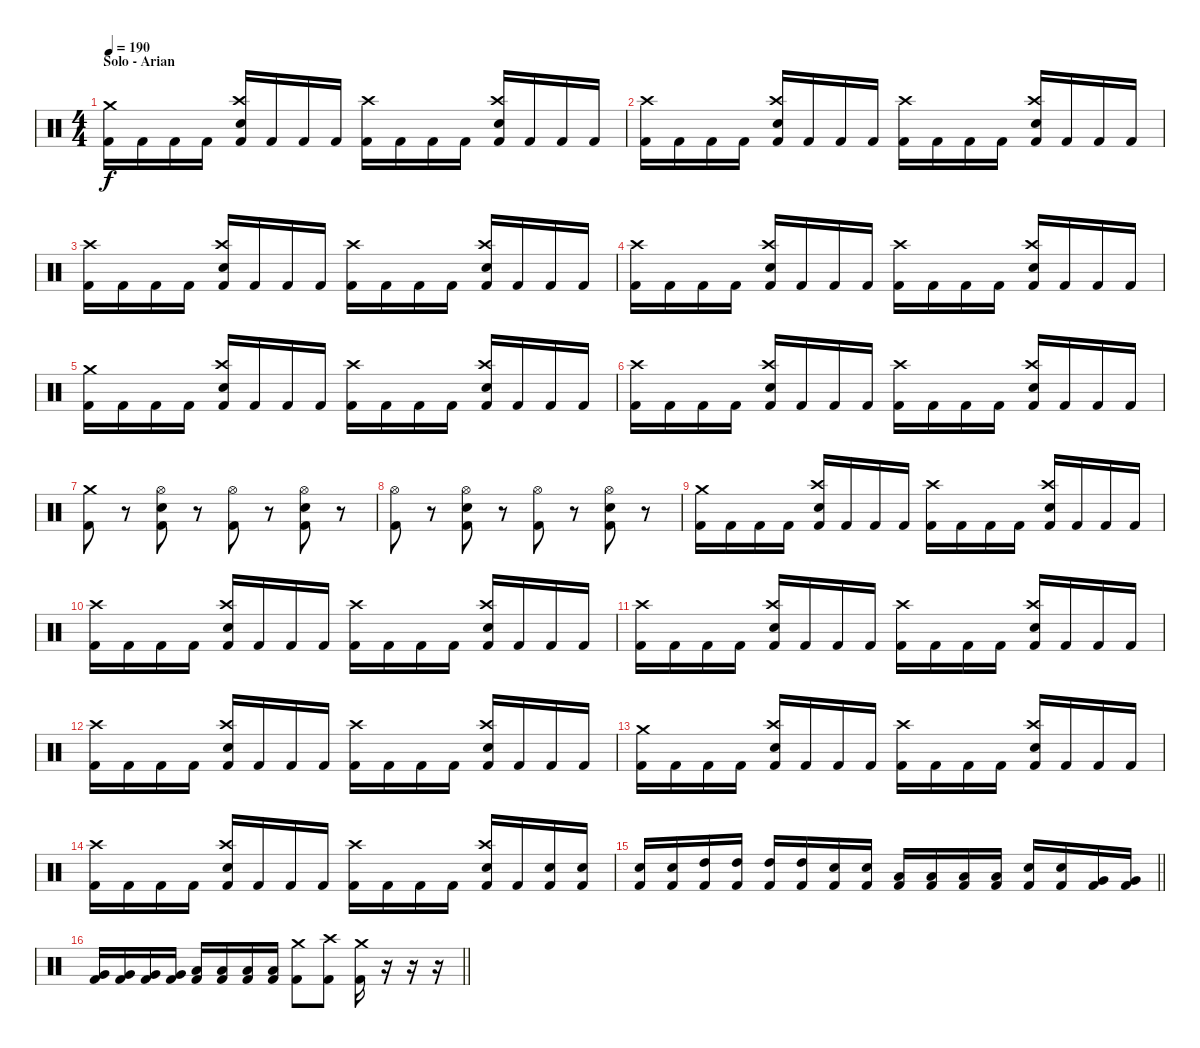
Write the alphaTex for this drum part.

\track "" {instrument percussion}
\staff {score}
\articulation defaults
\ts (4 4)
\section ("" "Solo - Arian")
\tempo 190
\clef neutral
\ks c
("Crash medium (hit)" "Kick (hit) 2").16{dy f} "Kick (hit) 2".16 "Kick (hit) 2".16 "Kick (hit) 2".16 ("Crash high (hit)" "Electric Snare (hit)" "Kick (hit) 2").16 "Kick (hit) 2".16 "Kick (hit) 2".16 "Kick (hit) 2".16 ("Crash high (hit)" "Kick (hit) 2").16 "Kick (hit) 2".16 "Kick (hit) 2".16 "Kick (hit) 2".16 ("Crash high (hit)" "Electric Snare (hit)" "Kick (hit) 2").16 "Kick (hit) 2".16 "Kick (hit) 2".16 "Kick (hit) 2".16 |
("Crash high (hit)" "Kick (hit) 2").16 "Kick (hit) 2".16 "Kick (hit) 2".16 "Kick (hit) 2".16 ("Crash high (hit)" "Electric Snare (hit)" "Kick (hit) 2").16 "Kick (hit) 2".16 "Kick (hit) 2".16 "Kick (hit) 2".16 ("Crash high (hit)" "Kick (hit) 2").16 "Kick (hit) 2".16 "Kick (hit) 2".16 "Kick (hit) 2".16 ("Crash high (hit)" "Electric Snare (hit)" "Kick (hit) 2").16 "Kick (hit) 2".16 "Kick (hit) 2".16 "Kick (hit) 2".16 |
("Crash high (hit)" "Kick (hit) 2").16 "Kick (hit) 2".16 "Kick (hit) 2".16 "Kick (hit) 2".16 ("Crash high (hit)" "Electric Snare (hit)" "Kick (hit) 2").16 "Kick (hit) 2".16 "Kick (hit) 2".16 "Kick (hit) 2".16 ("Crash high (hit)" "Kick (hit) 2").16 "Kick (hit) 2".16 "Kick (hit) 2".16 "Kick (hit) 2".16 ("Crash high (hit)" "Electric Snare (hit)" "Kick (hit) 2").16 "Kick (hit) 2".16 "Kick (hit) 2".16 "Kick (hit) 2".16 |
("Crash high (hit)" "Kick (hit) 2").16 "Kick (hit) 2".16 "Kick (hit) 2".16 "Kick (hit) 2".16 ("Crash high (hit)" "Electric Snare (hit)" "Kick (hit) 2").16 "Kick (hit) 2".16 "Kick (hit) 2".16 "Kick (hit) 2".16 ("Crash high (hit)" "Kick (hit) 2").16 "Kick (hit) 2".16 "Kick (hit) 2".16 "Kick (hit) 2".16 ("Crash high (hit)" "Electric Snare (hit)" "Kick (hit) 2").16 "Kick (hit) 2".16 "Kick (hit) 2".16 "Kick (hit) 2".16 |
("Crash medium (hit)" "Kick (hit) 2").16 "Kick (hit) 2".16 "Kick (hit) 2".16 "Kick (hit) 2".16 ("Crash high (hit)" "Electric Snare (hit)" "Kick (hit) 2").16 "Kick (hit) 2".16 "Kick (hit) 2".16 "Kick (hit) 2".16 ("Crash high (hit)" "Kick (hit) 2").16 "Kick (hit) 2".16 "Kick (hit) 2".16 "Kick (hit) 2".16 ("Crash high (hit)" "Electric Snare (hit)" "Kick (hit) 2").16 "Kick (hit) 2".16 "Kick (hit) 2".16 "Kick (hit) 2".16 |
("Crash high (hit)" "Kick (hit) 2").16 "Kick (hit) 2".16 "Kick (hit) 2".16 "Kick (hit) 2".16 ("Crash high (hit)" "Electric Snare (hit)" "Kick (hit) 2").16 "Kick (hit) 2".16 "Kick (hit) 2".16 "Kick (hit) 2".16 ("Crash high (hit)" "Kick (hit) 2").16 "Kick (hit) 2".16 "Kick (hit) 2".16 "Kick (hit) 2".16 ("Crash high (hit)" "Electric Snare (hit)" "Kick (hit) 2").16 "Kick (hit) 2".16 "Kick (hit) 2".16 "Kick (hit) 2".16 |
("Crash medium (hit)" "Kick (hit) 2").8 r.8 ("Hi-Hat (open)" "Electric Snare (hit)" "Kick (hit) 2").8 r.8 ("Hi-Hat (open)" "Kick (hit) 2").8 r.8 ("Hi-Hat (open)" "Electric Snare (hit)" "Kick (hit) 2").8 r.8 |
("Hi-Hat (open)" "Kick (hit) 2").8 r.8 ("Hi-Hat (open)" "Electric Snare (hit)" "Kick (hit) 2").8 r.8 ("Hi-Hat (open)" "Kick (hit) 2").8 r.8 ("Hi-Hat (open)" "Electric Snare (hit)" "Kick (hit) 2").8 r.8 |
("Crash medium (hit)" "Kick (hit) 2").16 "Kick (hit) 2".16 "Kick (hit) 2".16 "Kick (hit) 2".16 ("Crash high (hit)" "Electric Snare (hit)" "Kick (hit) 2").16 "Kick (hit) 2".16 "Kick (hit) 2".16 "Kick (hit) 2".16 ("Crash high (hit)" "Kick (hit) 2").16 "Kick (hit) 2".16 "Kick (hit) 2".16 "Kick (hit) 2".16 ("Crash high (hit)" "Electric Snare (hit)" "Kick (hit) 2").16 "Kick (hit) 2".16 "Kick (hit) 2".16 "Kick (hit) 2".16 |
("Crash high (hit)" "Kick (hit) 2").16 "Kick (hit) 2".16 "Kick (hit) 2".16 "Kick (hit) 2".16 ("Crash high (hit)" "Electric Snare (hit)" "Kick (hit) 2").16 "Kick (hit) 2".16 "Kick (hit) 2".16 "Kick (hit) 2".16 ("Crash high (hit)" "Kick (hit) 2").16 "Kick (hit) 2".16 "Kick (hit) 2".16 "Kick (hit) 2".16 ("Crash high (hit)" "Electric Snare (hit)" "Kick (hit) 2").16 "Kick (hit) 2".16 "Kick (hit) 2".16 "Kick (hit) 2".16 |
("Crash high (hit)" "Kick (hit) 2").16 "Kick (hit) 2".16 "Kick (hit) 2".16 "Kick (hit) 2".16 ("Crash high (hit)" "Electric Snare (hit)" "Kick (hit) 2").16 "Kick (hit) 2".16 "Kick (hit) 2".16 "Kick (hit) 2".16 ("Crash high (hit)" "Kick (hit) 2").16 "Kick (hit) 2".16 "Kick (hit) 2".16 "Kick (hit) 2".16 ("Crash high (hit)" "Electric Snare (hit)" "Kick (hit) 2").16 "Kick (hit) 2".16 "Kick (hit) 2".16 "Kick (hit) 2".16 |
("Crash high (hit)" "Kick (hit) 2").16 "Kick (hit) 2".16 "Kick (hit) 2".16 "Kick (hit) 2".16 ("Crash high (hit)" "Electric Snare (hit)" "Kick (hit) 2").16 "Kick (hit) 2".16 "Kick (hit) 2".16 "Kick (hit) 2".16 ("Crash high (hit)" "Kick (hit) 2").16 "Kick (hit) 2".16 "Kick (hit) 2".16 "Kick (hit) 2".16 ("Crash high (hit)" "Electric Snare (hit)" "Kick (hit) 2").16 "Kick (hit) 2".16 "Kick (hit) 2".16 "Kick (hit) 2".16 |
("Crash medium (hit)" "Kick (hit) 2").16 "Kick (hit) 2".16 "Kick (hit) 2".16 "Kick (hit) 2".16 ("Crash high (hit)" "Electric Snare (hit)" "Kick (hit) 2").16 "Kick (hit) 2".16 "Kick (hit) 2".16 "Kick (hit) 2".16 ("Crash high (hit)" "Kick (hit) 2").16 "Kick (hit) 2".16 "Kick (hit) 2".16 "Kick (hit) 2".16 ("Crash high (hit)" "Electric Snare (hit)" "Kick (hit) 2").16 "Kick (hit) 2".16 "Kick (hit) 2".16 "Kick (hit) 2".16 |
("Crash high (hit)" "Kick (hit) 2").16 "Kick (hit) 2".16 "Kick (hit) 2".16 "Kick (hit) 2".16 ("Crash high (hit)" "Electric Snare (hit)" "Kick (hit) 2").16 "Kick (hit) 2".16 "Kick (hit) 2".16 "Kick (hit) 2".16 ("Crash high (hit)" "Kick (hit) 2").16 "Kick (hit) 2".16 "Kick (hit) 2".16 "Kick (hit) 2".16 ("Crash high (hit)" "Electric Snare (hit)" "Kick (hit) 2").16 "Kick (hit) 2".16 ("Electric Snare (hit)" "Kick (hit) 2").16 ("Electric Snare (hit)" "Kick (hit) 2").16 |
\barLineRight lightlight
("Electric Snare (hit)" "Kick (hit) 2").16 ("Electric Snare (hit)" "Kick (hit) 2").16 ("High Tom (hit)" "Kick (hit) 2").16 ("High Tom (hit)" "Kick (hit) 2").16 ("High Tom (hit)" "Kick (hit) 2").16 ("High Tom (hit)" "Kick (hit) 2").16 ("Electric Snare (hit)" "Kick (hit) 2").16 ("Electric Snare (hit)" "Kick (hit) 2").16 ("Low Tom (hit)" "Kick (hit) 2").16 ("Low Tom (hit)" "Kick (hit) 2").16 ("Low Tom (hit)" "Kick (hit) 2").16 ("Low Tom (hit)" "Kick (hit) 2").16 ("Electric Snare (hit)" "Kick (hit) 2").16 ("Electric Snare (hit)" "Kick (hit) 2").16 ("Very Low Tom (hit)" "Kick (hit) 2").16 ("Very Low Tom (hit)" "Kick (hit) 2").16 |
\barLineRight lightlight
("Very Low Tom (hit)" "Kick (hit) 2").16 ("Very Low Tom (hit)" "Kick (hit) 2").16 ("Very Low Tom (hit)" "Kick (hit) 2").16 ("Very Low Tom (hit)" "Kick (hit) 2").16 ("Low Floor Tom (hit)" "Kick (hit) 2").16 ("Low Floor Tom (hit)" "Kick (hit) 2").16 ("Low Floor Tom (hit)" "Kick (hit) 2").16 ("Low Floor Tom (hit)" "Kick (hit) 2").16 ("Crash medium (hit)" "Kick (hit) 2").8 ("Crash high (hit)" "Kick (hit) 2").8 ("Crash medium (hit)" "Kick (hit) 2").16 r.16 r.16{volume 0} r.16
